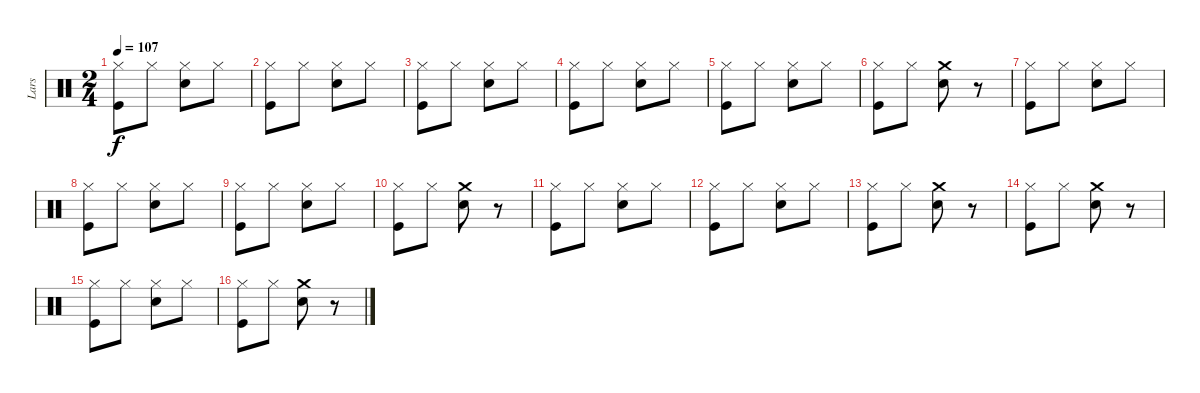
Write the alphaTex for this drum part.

\track ("Lars" "Lars") {instrument percussion}
\staff {score}
\articulation defaults
\ts (2 4)
\tempo 107
\clef neutral
\ks c
("Hi-Hat (closed)" "Kick (hit)").8{dy f} "Hi-Hat (closed)".8 ("Snare (hit) 2" "Hi-Hat (closed)").8 "Hi-Hat (closed)".8 |
("Hi-Hat (closed)" "Kick (hit)").8 "Hi-Hat (closed)".8 ("Hi-Hat (closed)" "Snare (hit) 2").8 "Hi-Hat (closed)".8 |
("Hi-Hat (closed)" "Kick (hit)").8 "Hi-Hat (closed)".8 ("Snare (hit) 2" "Hi-Hat (closed)").8 "Hi-Hat (closed)".8 |
("Hi-Hat (closed)" "Kick (hit)").8 "Hi-Hat (closed)".8 ("Snare (hit) 2" "Hi-Hat (closed)").8 "Hi-Hat (closed)".8 |
("Hi-Hat (closed)" "Kick (hit)").8 "Hi-Hat (closed)".8 ("Snare (hit) 2" "Hi-Hat (closed)").8 "Hi-Hat (closed)".8 |
("Hi-Hat (closed)" "Kick (hit)").8 "Hi-Hat (closed)".8 ("Crash medium (hit)" "Snare (hit) 2").8 r.8 |
("Hi-Hat (closed)" "Kick (hit)").8 "Hi-Hat (closed)".8 ("Snare (hit) 2" "Hi-Hat (closed)").8 "Hi-Hat (closed)".8 |
("Hi-Hat (closed)" "Kick (hit)").8 "Hi-Hat (closed)".8 ("Snare (hit) 2" "Hi-Hat (closed)").8 "Hi-Hat (closed)".8 |
("Hi-Hat (closed)" "Kick (hit)").8 "Hi-Hat (closed)".8 ("Snare (hit) 2" "Hi-Hat (closed)").8 "Hi-Hat (closed)".8 |
("Hi-Hat (closed)" "Kick (hit)").8 "Hi-Hat (closed)".8 ("Crash medium (hit)" "Snare (hit) 2").8 r.8 |
("Kick (hit)" "Hi-Hat (closed)").8 "Hi-Hat (closed)".8 ("Snare (hit) 2" "Hi-Hat (closed)").8 "Hi-Hat (closed)".8 |
("Hi-Hat (closed)" "Kick (hit)").8 "Hi-Hat (closed)".8 ("Snare (hit) 2" "Hi-Hat (closed)").8 "Hi-Hat (closed)".8 |
("Kick (hit)" "Hi-Hat (closed)").8 "Hi-Hat (closed)".8 ("Crash medium (hit)" "Snare (hit) 2").8 r.8 |
("Hi-Hat (closed)" "Kick (hit)").8 "Hi-Hat (closed)".8 ("Crash medium (hit)" "Snare (hit) 2").8 r.8 |
("Hi-Hat (closed)" "Kick (hit)").8 "Hi-Hat (closed)".8 ("Snare (hit) 2" "Hi-Hat (closed)").8 "Hi-Hat (closed)".8 |
("Hi-Hat (closed)" "Kick (hit)").8 "Hi-Hat (closed)".8 ("Crash medium (hit)" "Snare (hit) 2").8 r.8
